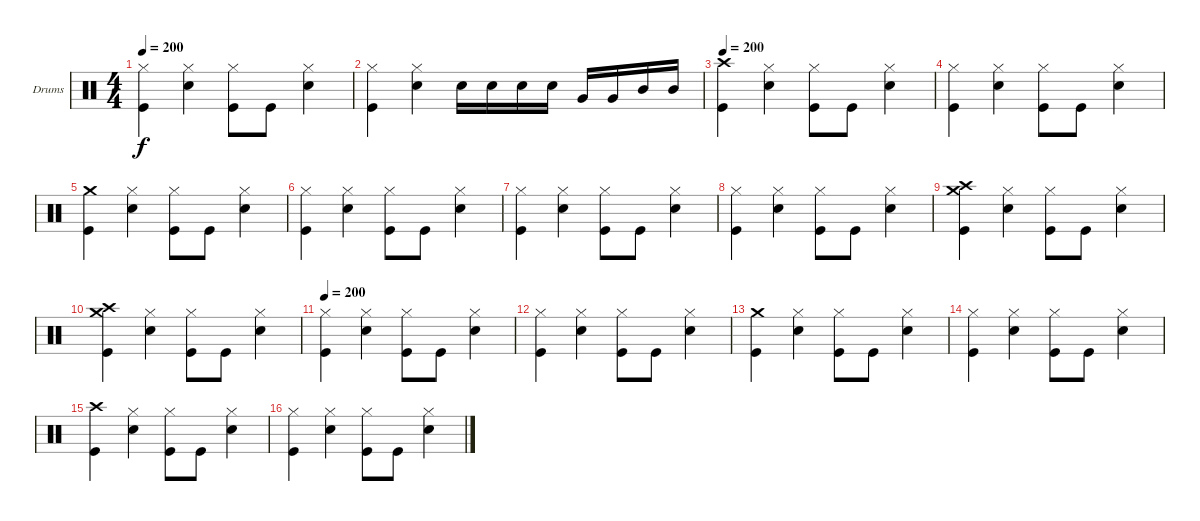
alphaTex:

\bracketExtendMode groupsimilarinstruments
\firstSystemTrackNameOrientation horizontal
\otherSystemsTrackNameOrientation horizontal
\track ("Drumkit" "Drums") {instrument percussion}
\staff {score}
\articulation defaults
\ts (4 4)
\tempo 200
\clef neutral
\ks c
("Hi-Hat (closed)" "Kick (hit)").4{dy f} ("Hi-Hat (closed)" "Snare (hit) 2").4 ("Hi-Hat (closed)" "Kick (hit)").8 "Kick (hit)".8 ("Hi-Hat (closed)" "Snare (hit) 2").4 |
("Hi-Hat (closed)" "Kick (hit)").4 ("Hi-Hat (closed)" "Snare (hit) 2").4 "Snare (hit) 2".16 "Snare (hit) 2".16 "Snare (hit) 2".16 "Snare (hit) 2".16 "Very Low Tom (hit)".16 "Very Low Tom (hit)".16 "Mid Tom (hit)".16 "Mid Tom (hit)".16 |
\tempo 200
("Crash high (hit)" "Kick (hit)").4 ("Hi-Hat (closed)" "Snare (hit) 2").4 ("Hi-Hat (closed)" "Kick (hit)").8 "Kick (hit)".8 ("Hi-Hat (closed)" "Snare (hit) 2").4 |
("Hi-Hat (closed)" "Kick (hit)").4 ("Hi-Hat (closed)" "Snare (hit) 2").4 ("Hi-Hat (closed)" "Kick (hit)").8 "Kick (hit)".8 ("Hi-Hat (closed)" "Snare (hit) 2").4 |
("Crash medium (hit)" "Kick (hit)").4 ("Hi-Hat (closed)" "Snare (hit) 2").4 ("Hi-Hat (closed)" "Kick (hit)").8 "Kick (hit)".8 ("Hi-Hat (closed)" "Snare (hit) 2").4 |
("Hi-Hat (closed)" "Kick (hit)").4 ("Hi-Hat (closed)" "Snare (hit) 2").4 ("Hi-Hat (closed)" "Kick (hit)").8 "Kick (hit)".8 ("Hi-Hat (closed)" "Snare (hit) 2").4 |
("Hi-Hat (closed)" "Kick (hit)").4 ("Hi-Hat (closed)" "Snare (hit) 2").4 ("Hi-Hat (closed)" "Kick (hit)").8 "Kick (hit)".8 ("Hi-Hat (closed)" "Snare (hit) 2").4 |
("Hi-Hat (closed)" "Kick (hit)").4 ("Hi-Hat (closed)" "Snare (hit) 2").4 ("Hi-Hat (closed)" "Kick (hit)").8 "Kick (hit)".8 ("Hi-Hat (closed)" "Snare (hit) 2").4 |
("Crash high (hit)" "Crash medium (hit)" "Kick (hit)").4 ("Hi-Hat (closed)" "Snare (hit) 2").4 ("Hi-Hat (closed)" "Kick (hit)").8 "Kick (hit)".8 ("Hi-Hat (closed)" "Snare (hit) 2").4 |
("Crash high (hit)" "Crash medium (hit)" "Kick (hit)").4 ("Hi-Hat (closed)" "Snare (hit) 2").4 ("Hi-Hat (closed)" "Kick (hit)").8 "Kick (hit)".8 ("Hi-Hat (closed)" "Snare (hit) 2").4 |
\tempo 200
("Hi-Hat (closed)" "Kick (hit)").4 ("Hi-Hat (closed)" "Snare (hit) 2").4 ("Hi-Hat (closed)" "Kick (hit)").8 "Kick (hit)".8 ("Hi-Hat (closed)" "Snare (hit) 2").4 |
("Hi-Hat (closed)" "Kick (hit)").4 ("Hi-Hat (closed)" "Snare (hit) 2").4 ("Hi-Hat (closed)" "Kick (hit)").8 "Kick (hit)".8 ("Hi-Hat (closed)" "Snare (hit) 2").4 |
("Crash medium (hit)" "Kick (hit)").4 ("Hi-Hat (closed)" "Snare (hit) 2").4 ("Hi-Hat (closed)" "Kick (hit)").8 "Kick (hit)".8 ("Hi-Hat (closed)" "Snare (hit) 2").4 |
("Hi-Hat (closed)" "Kick (hit)").4 ("Hi-Hat (closed)" "Snare (hit) 2").4 ("Hi-Hat (closed)" "Kick (hit)").8 "Kick (hit)".8 ("Hi-Hat (closed)" "Snare (hit) 2").4 |
("Crash high (hit)" "Kick (hit)").4 ("Hi-Hat (closed)" "Snare (hit) 2").4 ("Hi-Hat (closed)" "Kick (hit)").8 "Kick (hit)".8 ("Hi-Hat (closed)" "Snare (hit) 2").4 |
("Hi-Hat (closed)" "Kick (hit)").4 ("Hi-Hat (closed)" "Snare (hit) 2").4 ("Hi-Hat (closed)" "Kick (hit)").8 "Kick (hit)".8 ("Hi-Hat (closed)" "Snare (hit) 2").4
